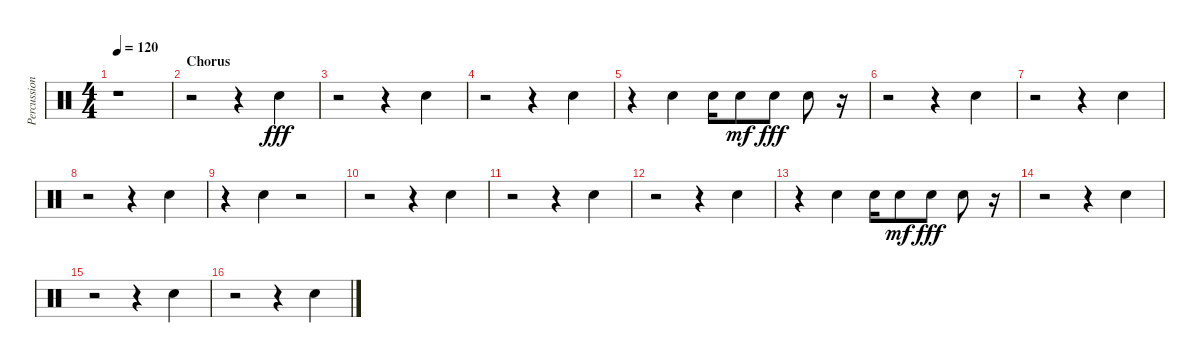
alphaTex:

\track ("Percussion" "Percussion") {instrument percussion}
\staff {score}
\articulation defaults
\ts (4 4)
\tempo 120
\clef neutral
\ks c
r.1{dy fff} |
\section ("" "Chorus")
r.2 r.4 "Hand Clap (hit)".4 |
r.2 r.4 "Hand Clap (hit)".4 |
r.2 r.4 "Hand Clap (hit)".4 |
r.4 "Hand Clap (hit)".4 "Hand Clap (hit)".16 "Hand Clap (hit)".8{dy mf} "Hand Clap (hit)".8{dy fff} "Hand Clap (hit)".8 r.16 |
r.2 r.4 "Hand Clap (hit)".4 |
r.2 r.4 "Hand Clap (hit)".4 |
r.2 r.4 "Hand Clap (hit)".4 |
r.4 "Hand Clap (hit)".4 r.2 |
r.2 r.4 "Hand Clap (hit)".4 |
r.2 r.4 "Hand Clap (hit)".4 |
r.2 r.4 "Hand Clap (hit)".4 |
r.4 "Hand Clap (hit)".4 "Hand Clap (hit)".16 "Hand Clap (hit)".8{dy mf} "Hand Clap (hit)".8{dy fff} "Hand Clap (hit)".8 r.16 |
r.2 r.4 "Hand Clap (hit)".4 |
r.2 r.4 "Hand Clap (hit)".4 |
r.2 r.4 "Hand Clap (hit)".4
